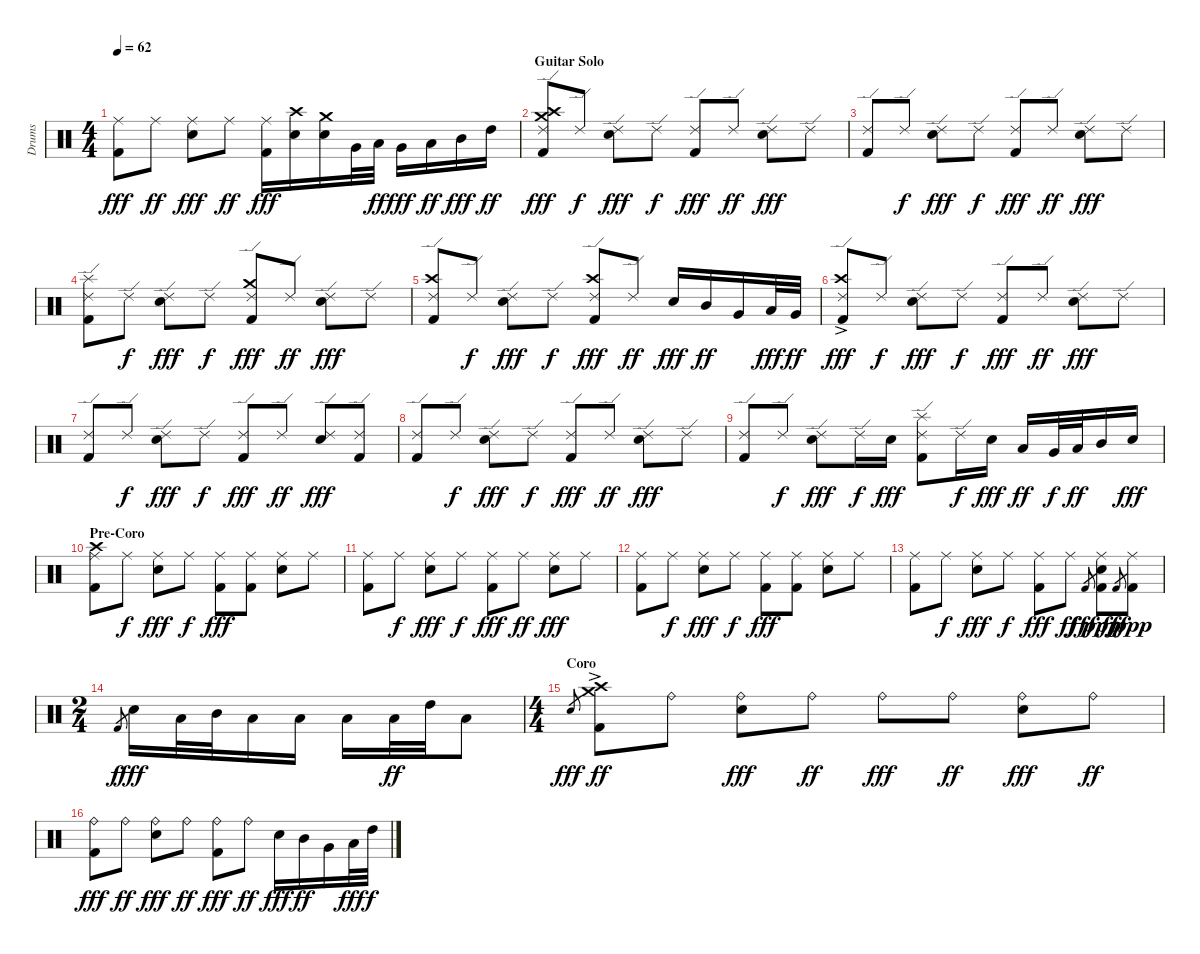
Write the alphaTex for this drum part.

\track ("Drums" "Drums") {instrument percussion}
\staff {score}
\articulation defaults
\ts (4 4)
\tempo 62
\clef neutral
\ks c
("Ride (middle)" "Kick (hit) 2").8{dy fff} "Ride (middle)".8{dy ff} ("Ride (middle)" "Electric Snare (hit)").8{dy fff} "Ride (middle)".8{dy ff} ("Ride (middle)" "Kick (hit) 2").16{dy fff} ("Crash high (hit)" "Electric Snare (hit)").16 ("Crash medium (hit)" "Electric Snare (hit)").16 "Very Low Tom (hit)".32 "Low Tom (hit)".32{dy ff} "Very Low Tom (hit)".16{dy fff} "Low Tom (hit)".16{dy ff} "Mid Tom (hit)".16{dy fff} "High Tom (hit)".16{dy ff} |
\section ("" "Guitar Solo ")
("Crash high (hit)" "Crash medium (hit)" "Ride (edge) 2" "Kick (hit) 2").8{dy fff} "Ride (edge) 2".8{dy f} ("Ride (edge) 2" "Electric Snare (hit)").8{dy fff} "Ride (edge) 2".8{dy f} ("Ride (edge) 2" "Kick (hit) 2").8{dy fff} "Ride (edge) 2".8{dy ff} ("Ride (edge) 2" "Electric Snare (hit)").8{dy fff} "Ride (edge) 2".8 |
("Ride (edge) 2" "Kick (hit) 2").8 "Ride (edge) 2".8{dy f} ("Ride (edge) 2" "Electric Snare (hit)").8{dy fff} "Ride (edge) 2".8{dy f} ("Ride (edge) 2" "Kick (hit) 2").8{dy fff} "Ride (edge) 2".8{dy ff} ("Ride (edge) 2" "Electric Snare (hit)").8{dy fff} "Ride (edge) 2".8 |
("Splash (hit)" "Ride (edge) 2" "Kick (hit) 2").8 "Ride (edge) 2".8{dy f} ("Ride (edge) 2" "Electric Snare (hit)").8{dy fff} "Ride (edge) 2".8{dy f} ("Crash medium (hit)" "Ride (edge) 2" "Kick (hit) 2").8{dy fff} "Ride (edge) 2".8{dy ff} ("Ride (edge) 2" "Electric Snare (hit)").8{dy fff} "Ride (edge) 2".8 |
("Crash high (hit)" "Ride (edge) 2" "Kick (hit) 2").8 "Ride (edge) 2".8{dy f} ("Ride (edge) 2" "Electric Snare (hit)").8{dy fff} "Ride (edge) 2".8{dy f} ("Crash high (hit)" "Ride (edge) 2" "Kick (hit) 2").8{dy fff} "Ride (edge) 2".8{dy ff} "Electric Snare (hit)".16{dy fff} "Mid Tom (hit)".16{dy ff} "Very Low Tom (hit)".16 "Low Tom (hit)".32{dy fff} "Very Low Tom (hit)".32{dy ff} |
("Crash high (hit)"{ac} "Ride (edge) 2" "Kick (hit) 2").8{dy fff} "Ride (edge) 2".8{dy f} ("Ride (edge) 2" "Electric Snare (hit)").8{dy fff} "Ride (edge) 2".8{dy f} ("Ride (edge) 2" "Kick (hit) 2").8{dy fff} "Ride (edge) 2".8{dy ff} ("Ride (edge) 2" "Electric Snare (hit)").8{dy fff} "Ride (edge) 2".8 |
("Ride (edge) 2" "Kick (hit) 2").8 "Ride (edge) 2".8{dy f} ("Ride (edge) 2" "Electric Snare (hit)").8{dy fff} "Ride (edge) 2".8{dy f} ("Ride (edge) 2" "Kick (hit) 2").8{dy fff} "Ride (edge) 2".8{dy ff} ("Ride (edge) 2" "Electric Snare (hit)").8{dy fff} ("Ride (edge) 2" "Kick (hit) 2").8 |
("Ride (edge) 2" "Kick (hit) 2").8 "Ride (edge) 2".8{dy f} ("Ride (edge) 2" "Electric Snare (hit)").8{dy fff} "Ride (edge) 2".8{dy f} ("Ride (edge) 2" "Kick (hit) 2").8{dy fff} "Ride (edge) 2".8{dy ff} ("Ride (edge) 2" "Electric Snare (hit)").8{dy fff} "Ride (edge) 2".8 |
("Ride (edge) 2" "Kick (hit) 2").8 "Ride (edge) 2".8{dy f} ("Ride (edge) 2" "Electric Snare (hit)").8{dy fff} "Ride (edge) 2".16{dy f} "Electric Snare (hit)".16{dy fff} ("Splash (hit)" "Ride (edge) 2" "Kick (hit) 2").8 "Ride (edge) 2".16{dy f} "Electric Snare (hit)".16{dy fff} "Low Tom (hit)".16{dy ff} "Very Low Tom (hit)".32{dy f} "Low Tom (hit)".32{dy ff} "Mid Tom (hit)".16 "Electric Snare (hit)".16{dy fff} |
\section ("" "Pre-Coro")
("Crash high (hit)" "Ride (middle)" "Kick (hit) 2").8 "Ride (middle)".8{dy f} ("Ride (middle)" "Electric Snare (hit)").8{dy fff} "Ride (middle)".8{dy f} ("Ride (middle)" "Kick (hit) 2").8{dy fff} ("Ride (middle)" "Kick (hit) 2").8 ("Ride (middle)" "Electric Snare (hit)").8 "Ride (middle)".8 |
("Ride (middle)" "Kick (hit) 2").8 "Ride (middle)".8{dy f} ("Ride (middle)" "Electric Snare (hit)").8{dy fff} "Ride (middle)".8{dy f} ("Ride (middle)" "Kick (hit) 2").8{dy fff} "Ride (middle)".8{dy ff} ("Ride (middle)" "Electric Snare (hit)").8{dy fff} "Ride (middle)".8 |
("Ride (middle)" "Kick (hit) 2").8 "Ride (middle)".8{dy f} ("Ride (middle)" "Electric Snare (hit)").8{dy fff} "Ride (middle)".8{dy f} ("Ride (middle)" "Kick (hit) 2").8{dy fff} ("Ride (middle)" "Kick (hit) 2").8 ("Ride (middle)" "Electric Snare (hit)").8 "Ride (middle)".8 |
("Ride (middle)" "Kick (hit) 2").8 "Ride (middle)".8{dy f} ("Ride (middle)" "Electric Snare (hit)").8{dy fff} "Ride (middle)".8{dy f} ("Ride (middle)" "Kick (hit) 2").8{dy fff} "Ride (middle)".8{dy ff} "Kick (hit) 2".8{gr dy fff} ("Ride (middle)" "Electric Snare (hit)" "Kick (hit) 2").8{dy ppp} "Kick (hit) 2".8{gr dy fff} ("Ride (middle)" "Kick (hit) 2").8{dy ppp} |
\ts (2 4)
"Kick (hit) 2".8{gr dy f} "Electric Snare (hit)".16{dy fff} "Low Tom (hit)".32 "Mid Tom (hit)".32 "Low Tom (hit)".16 "Low Tom (hit)".16 "Low Tom (hit)".16 "Low Tom (hit)".32{dy ff} "High Tom (hit)".32 "Low Tom (hit)".8 |
\ts (4 4)
\section ("" "Coro")
"Electric Snare (hit)".8{gr dy fff} ("Crash high (hit)"{ac} "Crash medium (hit)"{ac} "Kick (hit) 2").8{dy ff} "Ride (bell)".8 ("Ride (bell)" "Electric Snare (hit)").8{dy fff} "Ride (bell)".8{dy ff} "Ride (bell)".8{dy fff} "Ride (bell)".8{dy ff} ("Ride (bell)" "Electric Snare (hit)").8{dy fff} "Ride (bell)".8{dy ff} |
("Ride (bell)" "Kick (hit) 2").8{dy fff} "Ride (bell)".8{dy ff} ("Ride (bell)" "Electric Snare (hit)").8{dy fff} "Ride (bell)".8{dy ff} ("Ride (bell)" "Kick (hit) 2").8{dy fff} "Ride (bell)".8{dy ff} "Electric Snare (hit)".16{dy fff} "Mid Tom (hit)".16{dy ff} "Very Low Tom (hit)".16 "Low Tom (hit)".32{dy fff} "High Tom (hit)".32{dy f}
